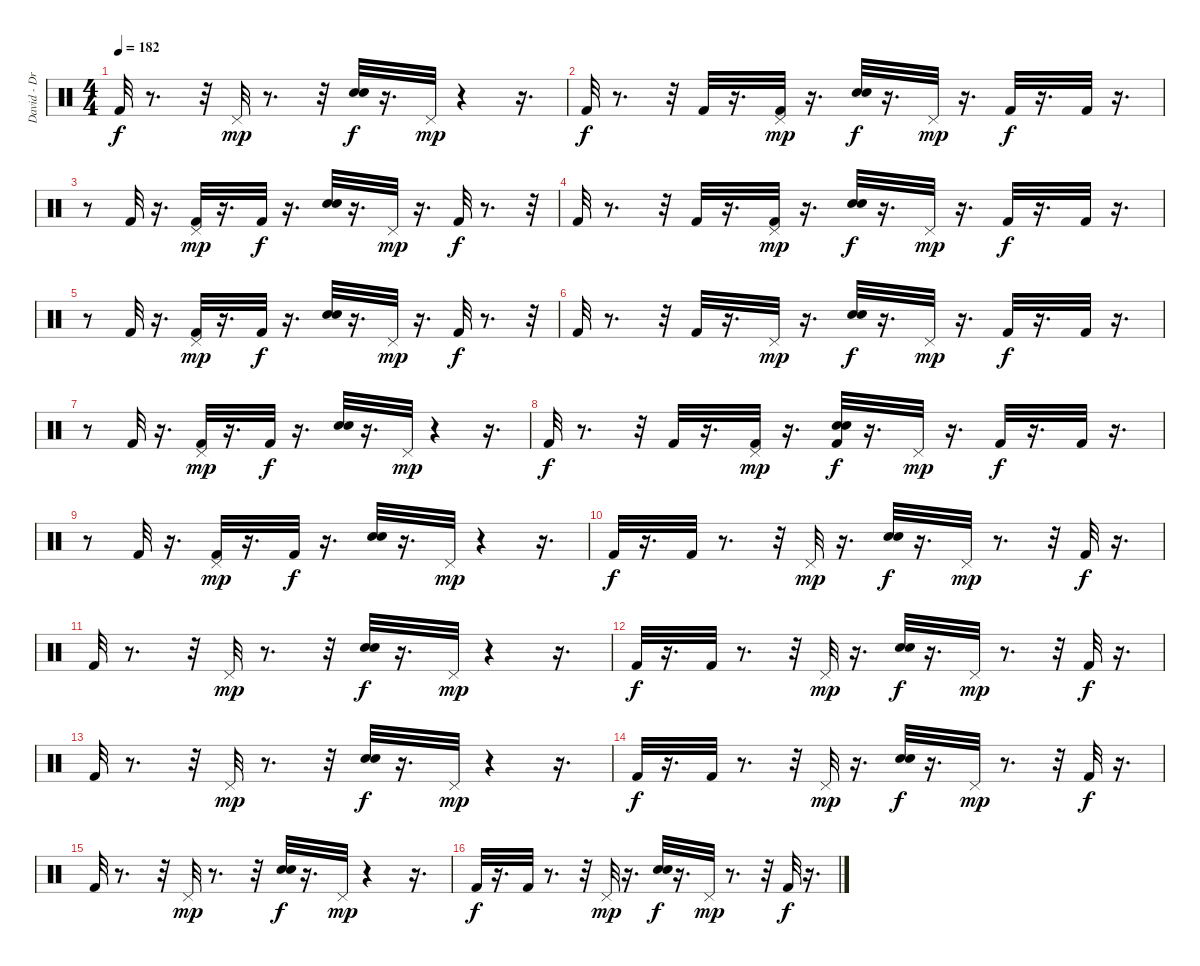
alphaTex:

\track ("David - Drums" "David - Dr") {instrument percussion}
\staff {score}
\articulation defaults
\ts (4 4)
\tempo 182
\clef neutral
\ks c "Kick (hit) 2".32{dy f}
r.8{d} r.32 "Pedal Hi-Hat (hit)".32{dy mp} r.8{d} r.32 ("Snare (hit) 2" "Electric Snare (hit)").32{dy f} r.16{d} "Pedal Hi-Hat (hit)".32{dy mp} r.4 r.16{d} |
"Kick (hit) 2".32{dy f} r.8{d} r.32 "Kick (hit) 2".32 r.16{d} ("Kick (hit) 2" "Pedal Hi-Hat (hit)").32{dy mp} r.16{d} ("Electric Snare (hit)" "Snare (hit) 2").32{dy f} r.16{d} "Pedal Hi-Hat (hit)".32{dy mp} r.16{d} "Kick (hit) 2".32{dy f} r.16{d} "Kick (hit) 2".32 r.16{d} |
r.8 "Kick (hit) 2".32 r.16{d} ("Kick (hit) 2" "Pedal Hi-Hat (hit)").32{dy mp} r.16{d} "Kick (hit) 2".32{dy f} r.16{d} ("Snare (hit) 2" "Electric Snare (hit)").32 r.16{d} "Pedal Hi-Hat (hit)".32{dy mp} r.16{d} "Kick (hit) 2".32{dy f} r.8{d} r.32 |
"Kick (hit) 2".32 r.8{d} r.32 "Kick (hit) 2".32 r.16{d} ("Kick (hit) 2" "Pedal Hi-Hat (hit)").32{dy mp} r.16{d} ("Electric Snare (hit)" "Snare (hit) 2").32{dy f} r.16{d} "Pedal Hi-Hat (hit)".32{dy mp} r.16{d} "Kick (hit) 2".32{dy f} r.16{d} "Kick (hit) 2".32 r.16{d} |
r.8 "Kick (hit) 2".32 r.16{d} ("Kick (hit) 2" "Pedal Hi-Hat (hit)").32{dy mp} r.16{d} "Kick (hit) 2".32{dy f} r.16{d} ("Snare (hit) 2" "Electric Snare (hit)").32 r.16{d} "Pedal Hi-Hat (hit)".32{dy mp} r.16{d} "Kick (hit) 2".32{dy f} r.8{d} r.32 |
"Kick (hit) 2".32 r.8{d} r.32 "Kick (hit) 2".32 r.16{d} "Pedal Hi-Hat (hit)".32{dy mp} r.16{d} ("Electric Snare (hit)" "Snare (hit) 2").32{dy f} r.16{d} "Pedal Hi-Hat (hit)".32{dy mp} r.16{d} "Kick (hit) 2".32{dy f} r.16{d} "Kick (hit) 2".32 r.16{d} |
r.8 "Kick (hit) 2".32 r.16{d} ("Kick (hit) 2" "Pedal Hi-Hat (hit)").32{dy mp} r.16{d} "Kick (hit) 2".32{dy f} r.16{d} ("Snare (hit) 2" "Electric Snare (hit)").32 r.16{d} "Pedal Hi-Hat (hit)".32{dy mp} r.4 r.16{d} |
"Kick (hit) 2".32{dy f} r.8{d} r.32 "Kick (hit) 2".32 r.16{d} ("Pedal Hi-Hat (hit)" "Kick (hit) 2").32{dy mp} r.16{d} ("Kick (hit) 2" "Electric Snare (hit)" "Snare (hit) 2").32{dy f} r.16{d} "Pedal Hi-Hat (hit)".32{dy mp} r.16{d} "Kick (hit) 2".32{dy f} r.16{d} "Kick (hit) 2".32 r.16{d} |
r.8 "Kick (hit) 2".32 r.16{d} ("Kick (hit) 2" "Pedal Hi-Hat (hit)").32{dy mp} r.16{d} "Kick (hit) 2".32{dy f} r.16{d} ("Snare (hit) 2" "Electric Snare (hit)").32 r.16{d} "Pedal Hi-Hat (hit)".32{dy mp} r.4 r.16{d} |
"Kick (hit) 2".32{dy f} r.16{d} "Kick (hit) 2".32 r.8{d} r.32 "Pedal Hi-Hat (hit)".32{dy mp} r.16{d} ("Electric Snare (hit)" "Snare (hit) 2").32{dy f} r.16{d} "Pedal Hi-Hat (hit)".32{dy mp} r.8{d} r.32 "Kick (hit) 2".32{dy f} r.16{d} |
"Kick (hit) 2".32 r.8{d} r.32 "Pedal Hi-Hat (hit)".32{dy mp} r.8{d} r.32 ("Snare (hit) 2" "Electric Snare (hit)").32{dy f} r.16{d} "Pedal Hi-Hat (hit)".32{dy mp} r.4 r.16{d} |
"Kick (hit) 2".32{dy f} r.16{d} "Kick (hit) 2".32 r.8{d} r.32 "Pedal Hi-Hat (hit)".32{dy mp} r.16{d} ("Electric Snare (hit)" "Snare (hit) 2").32{dy f} r.16{d} "Pedal Hi-Hat (hit)".32{dy mp} r.8{d} r.32 "Kick (hit) 2".32{dy f} r.16{d} |
"Kick (hit) 2".32 r.8{d} r.32 "Pedal Hi-Hat (hit)".32{dy mp} r.8{d} r.32 ("Snare (hit) 2" "Electric Snare (hit)").32{dy f} r.16{d} "Pedal Hi-Hat (hit)".32{dy mp} r.4 r.16{d} |
"Kick (hit) 2".32{dy f} r.16{d} "Kick (hit) 2".32 r.8{d} r.32 "Pedal Hi-Hat (hit)".32{dy mp} r.16{d} ("Electric Snare (hit)" "Snare (hit) 2").32{dy f} r.16{d} "Pedal Hi-Hat (hit)".32{dy mp} r.8{d} r.32 "Kick (hit) 2".32{dy f} r.16{d} |
"Kick (hit) 2".32 r.8{d} r.32 "Pedal Hi-Hat (hit)".32{dy mp} r.8{d} r.32 ("Snare (hit) 2" "Electric Snare (hit)").32{dy f} r.16{d} "Pedal Hi-Hat (hit)".32{dy mp} r.4 r.16{d} |
"Kick (hit) 2".32{dy f} r.16{d} "Kick (hit) 2".32 r.8{d} r.32 "Pedal Hi-Hat (hit)".32{dy mp} r.16{d} ("Electric Snare (hit)" "Snare (hit) 2").32{dy f} r.16{d} "Pedal Hi-Hat (hit)".32{dy mp} r.8{d} r.32 "Kick (hit) 2".32{dy f} r.16{d}
